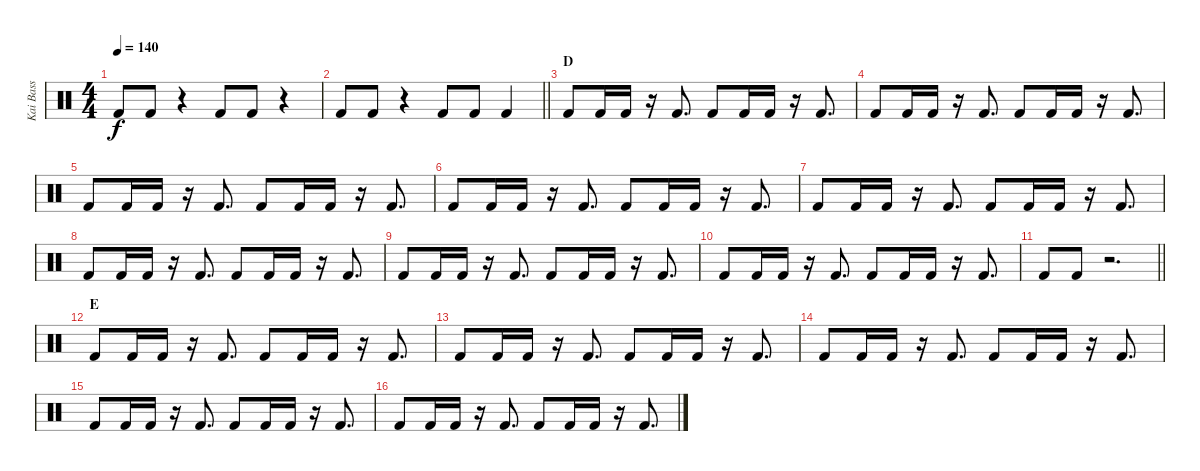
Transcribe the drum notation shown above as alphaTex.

\track ("Kai Bass" "Kai Bass") {instrument percussion}
\staff {score}
\articulation defaults
\ts (4 4)
\tempo 140
\clef neutral
\ks c "Kick (hit) 2".8{dy f} "Kick (hit) 2".8
r.4 "Kick (hit) 2".8 "Kick (hit) 2".8 r.4 |
\barLineRight lightlight "Kick (hit) 2".8 "Kick (hit) 2".8
r.4 "Kick (hit) 2".8 "Kick (hit) 2".8 "Kick (hit) 2".4 |
\section ("" "D")
"Kick (hit) 2".8 "Kick (hit) 2".16 "Kick (hit) 2".16 r.16 "Kick (hit) 2".8{d} "Kick (hit) 2".8 "Kick (hit) 2".16 "Kick (hit) 2".16 r.16 "Kick (hit) 2".8{d} |
"Kick (hit) 2".8 "Kick (hit) 2".16 "Kick (hit) 2".16 r.16 "Kick (hit) 2".8{d} "Kick (hit) 2".8 "Kick (hit) 2".16 "Kick (hit) 2".16 r.16 "Kick (hit) 2".8{d} |
"Kick (hit) 2".8 "Kick (hit) 2".16 "Kick (hit) 2".16 r.16 "Kick (hit) 2".8{d} "Kick (hit) 2".8 "Kick (hit) 2".16 "Kick (hit) 2".16 r.16 "Kick (hit) 2".8{d} |
"Kick (hit) 2".8 "Kick (hit) 2".16 "Kick (hit) 2".16 r.16 "Kick (hit) 2".8{d} "Kick (hit) 2".8 "Kick (hit) 2".16 "Kick (hit) 2".16 r.16 "Kick (hit) 2".8{d} |
"Kick (hit) 2".8 "Kick (hit) 2".16 "Kick (hit) 2".16 r.16 "Kick (hit) 2".8{d} "Kick (hit) 2".8 "Kick (hit) 2".16 "Kick (hit) 2".16 r.16 "Kick (hit) 2".8{d} |
"Kick (hit) 2".8 "Kick (hit) 2".16 "Kick (hit) 2".16 r.16 "Kick (hit) 2".8{d} "Kick (hit) 2".8 "Kick (hit) 2".16 "Kick (hit) 2".16 r.16 "Kick (hit) 2".8{d} |
"Kick (hit) 2".8 "Kick (hit) 2".16 "Kick (hit) 2".16 r.16 "Kick (hit) 2".8{d} "Kick (hit) 2".8 "Kick (hit) 2".16 "Kick (hit) 2".16 r.16 "Kick (hit) 2".8{d} |
"Kick (hit) 2".8 "Kick (hit) 2".16 "Kick (hit) 2".16 r.16 "Kick (hit) 2".8{d} "Kick (hit) 2".8 "Kick (hit) 2".16 "Kick (hit) 2".16 r.16 "Kick (hit) 2".8{d} |
\barLineRight lightlight "Kick (hit) 2".8 "Kick (hit) 2".8
r.2{d} |
\section ("" "E")
"Kick (hit) 2".8 "Kick (hit) 2".16 "Kick (hit) 2".16 r.16 "Kick (hit) 2".8{d} "Kick (hit) 2".8 "Kick (hit) 2".16 "Kick (hit) 2".16 r.16 "Kick (hit) 2".8{d} |
"Kick (hit) 2".8 "Kick (hit) 2".16 "Kick (hit) 2".16 r.16 "Kick (hit) 2".8{d} "Kick (hit) 2".8 "Kick (hit) 2".16 "Kick (hit) 2".16 r.16 "Kick (hit) 2".8{d} |
"Kick (hit) 2".8 "Kick (hit) 2".16 "Kick (hit) 2".16 r.16 "Kick (hit) 2".8{d} "Kick (hit) 2".8 "Kick (hit) 2".16 "Kick (hit) 2".16 r.16 "Kick (hit) 2".8{d} |
"Kick (hit) 2".8 "Kick (hit) 2".16 "Kick (hit) 2".16 r.16 "Kick (hit) 2".8{d} "Kick (hit) 2".8 "Kick (hit) 2".16 "Kick (hit) 2".16 r.16 "Kick (hit) 2".8{d} |
"Kick (hit) 2".8 "Kick (hit) 2".16 "Kick (hit) 2".16 r.16 "Kick (hit) 2".8{d} "Kick (hit) 2".8 "Kick (hit) 2".16 "Kick (hit) 2".16 r.16 "Kick (hit) 2".8{d}
